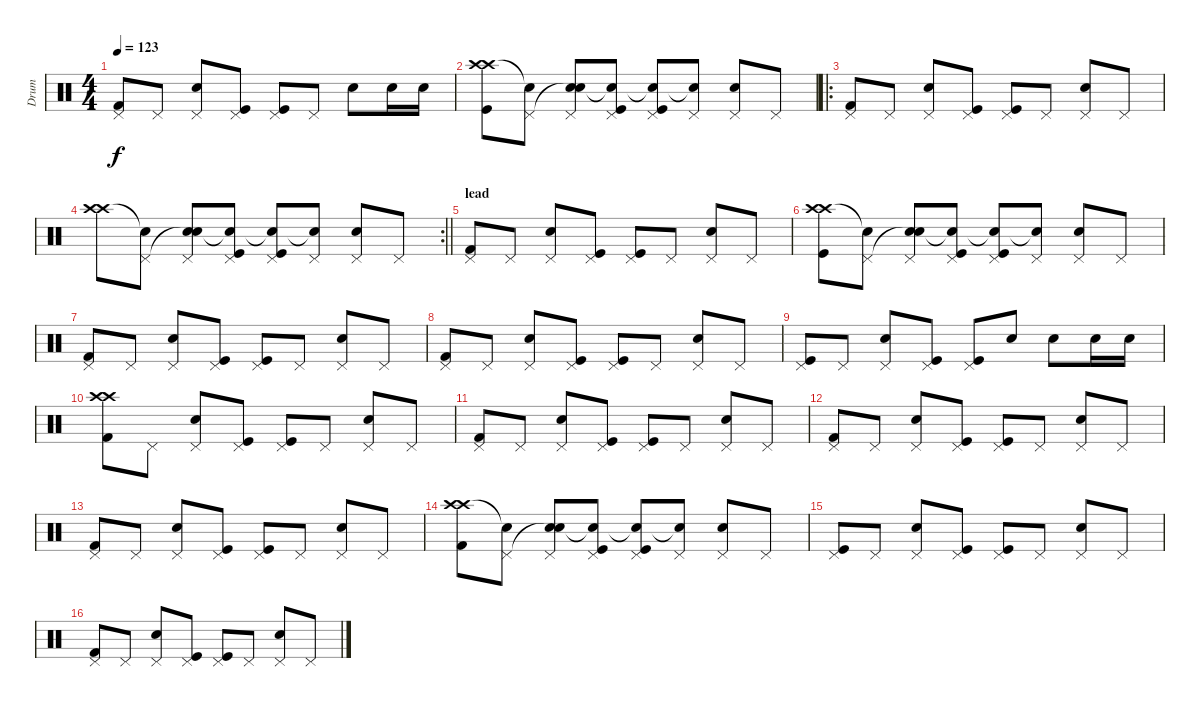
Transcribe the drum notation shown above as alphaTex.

\track ("Drum" "Drum") {instrument percussion}
\staff {score}
\articulation defaults
\ts (4 4)
\tempo 123
\clef neutral
\ks c
("Kick (hit) 2" "Pedal Hi-Hat (hit)").8{dy f} "Pedal Hi-Hat (hit)".8 ("Snare (hit) 2" "Pedal Hi-Hat (hit)").8 ("Kick (hit)" "Pedal Hi-Hat (hit)").8 ("Kick (hit)" "Pedal Hi-Hat (hit)").8 "Pedal Hi-Hat (hit)".8 "Snare (hit) 2".8 "Snare (hit) 2".16 "Snare (hit) 2".16 |
("Crash high (hit)" "Crash high (hit)" "Kick (hit)").8 ("Snare (hit)"{t} "Pedal Hi-Hat (hit)").8 ("Snare (hit) 2" "Snare (hit)"{t} "Pedal Hi-Hat (hit)").8 ("Snare (hit)"{t} "Kick (hit)" "Pedal Hi-Hat (hit)").8 ("Snare (hit)"{t} "Kick (hit)" "Pedal Hi-Hat (hit)").8 ("Snare (hit)"{t} "Pedal Hi-Hat (hit)").8 ("Snare (hit) 2" "Pedal Hi-Hat (hit)").8 "Pedal Hi-Hat (hit)".8 |
\ro
("Kick (hit) 2" "Pedal Hi-Hat (hit)").8 "Pedal Hi-Hat (hit)".8 ("Snare (hit) 2" "Pedal Hi-Hat (hit)").8 ("Kick (hit)" "Pedal Hi-Hat (hit)").8 ("Kick (hit)" "Pedal Hi-Hat (hit)").8 "Pedal Hi-Hat (hit)".8 ("Snare (hit) 2" "Pedal Hi-Hat (hit)").8 "Pedal Hi-Hat (hit)".8 |
\rc 2
\barLineRight lightlight
("Crash high (hit)" "Crash high (hit)").8 ("Snare (hit)"{t} "Pedal Hi-Hat (hit)").8 ("Snare (hit) 2" "Snare (hit)"{t} "Pedal Hi-Hat (hit)").8 ("Snare (hit)"{t} "Kick (hit)" "Pedal Hi-Hat (hit)").8 ("Snare (hit)"{t} "Kick (hit)" "Pedal Hi-Hat (hit)").8 ("Snare (hit)"{t} "Pedal Hi-Hat (hit)").8 ("Snare (hit) 2" "Pedal Hi-Hat (hit)").8 "Pedal Hi-Hat (hit)".8 |
\section ("" "lead")
("Kick (hit) 2" "Pedal Hi-Hat (hit)").8 "Pedal Hi-Hat (hit)".8 ("Snare (hit) 2" "Pedal Hi-Hat (hit)").8 ("Kick (hit)" "Pedal Hi-Hat (hit)").8 ("Kick (hit)" "Pedal Hi-Hat (hit)").8 "Pedal Hi-Hat (hit)".8 ("Snare (hit) 2" "Pedal Hi-Hat (hit)").8 "Pedal Hi-Hat (hit)".8 |
("Crash high (hit)" "Crash high (hit)" "Kick (hit)").8 ("Snare (hit)"{t} "Pedal Hi-Hat (hit)").8 ("Snare (hit) 2" "Snare (hit)"{t} "Pedal Hi-Hat (hit)").8 ("Snare (hit)"{t} "Kick (hit)" "Pedal Hi-Hat (hit)").8 ("Snare (hit)"{t} "Kick (hit)" "Pedal Hi-Hat (hit)").8 ("Snare (hit)"{t} "Pedal Hi-Hat (hit)").8 ("Snare (hit) 2" "Pedal Hi-Hat (hit)").8 "Pedal Hi-Hat (hit)".8 |
("Kick (hit) 2" "Pedal Hi-Hat (hit)").8 "Pedal Hi-Hat (hit)".8 ("Snare (hit) 2" "Pedal Hi-Hat (hit)").8 ("Kick (hit)" "Pedal Hi-Hat (hit)").8 ("Kick (hit)" "Pedal Hi-Hat (hit)").8 "Pedal Hi-Hat (hit)".8 ("Snare (hit) 2" "Pedal Hi-Hat (hit)").8 "Pedal Hi-Hat (hit)".8 |
("Kick (hit) 2" "Pedal Hi-Hat (hit)").8 "Pedal Hi-Hat (hit)".8 ("Snare (hit) 2" "Pedal Hi-Hat (hit)").8 ("Kick (hit)" "Pedal Hi-Hat (hit)").8 ("Kick (hit)" "Pedal Hi-Hat (hit)").8 "Pedal Hi-Hat (hit)".8 ("Snare (hit) 2" "Pedal Hi-Hat (hit)").8 "Pedal Hi-Hat (hit)".8 |
("Kick (hit)" "Pedal Hi-Hat (hit)").8 "Pedal Hi-Hat (hit)".8 ("Snare (hit) 2" "Pedal Hi-Hat (hit)").8 ("Kick (hit)" "Pedal Hi-Hat (hit)").8 ("Kick (hit)" "Pedal Hi-Hat (hit)").8 "Snare (hit) 2".8 "Snare (hit) 2".8 "Snare (hit) 2".16 "Snare (hit) 2".16 |
("Crash high (hit)" "Crash high (hit)" "Kick (hit) 2").8 "Pedal Hi-Hat (hit)".8 ("Snare (hit) 2" "Pedal Hi-Hat (hit)").8 ("Kick (hit)" "Pedal Hi-Hat (hit)").8 ("Kick (hit)" "Pedal Hi-Hat (hit)").8 "Pedal Hi-Hat (hit)".8 ("Snare (hit) 2" "Pedal Hi-Hat (hit)").8 "Pedal Hi-Hat (hit)".8 |
("Kick (hit) 2" "Pedal Hi-Hat (hit)").8 "Pedal Hi-Hat (hit)".8 ("Snare (hit) 2" "Pedal Hi-Hat (hit)").8 ("Kick (hit)" "Pedal Hi-Hat (hit)").8 ("Kick (hit)" "Pedal Hi-Hat (hit)").8 "Pedal Hi-Hat (hit)".8 ("Snare (hit) 2" "Pedal Hi-Hat (hit)").8 "Pedal Hi-Hat (hit)".8 |
("Kick (hit) 2" "Pedal Hi-Hat (hit)").8 "Pedal Hi-Hat (hit)".8 ("Snare (hit) 2" "Pedal Hi-Hat (hit)").8 ("Kick (hit)" "Pedal Hi-Hat (hit)").8 ("Kick (hit)" "Pedal Hi-Hat (hit)").8 "Pedal Hi-Hat (hit)".8 ("Snare (hit) 2" "Pedal Hi-Hat (hit)").8 "Pedal Hi-Hat (hit)".8 |
("Kick (hit) 2" "Pedal Hi-Hat (hit)").8 "Pedal Hi-Hat (hit)".8 ("Snare (hit) 2" "Pedal Hi-Hat (hit)").8 ("Kick (hit)" "Pedal Hi-Hat (hit)").8 ("Kick (hit)" "Pedal Hi-Hat (hit)").8 "Pedal Hi-Hat (hit)".8 ("Snare (hit) 2" "Pedal Hi-Hat (hit)").8 "Pedal Hi-Hat (hit)".8 |
("Crash high (hit)" "Crash high (hit)" "Kick (hit) 2").8 ("Snare (hit)"{t} "Pedal Hi-Hat (hit)").8 ("Snare (hit) 2" "Snare (hit)"{t} "Pedal Hi-Hat (hit)").8 ("Snare (hit)"{t} "Kick (hit)" "Pedal Hi-Hat (hit)").8 ("Snare (hit)"{t} "Kick (hit)" "Pedal Hi-Hat (hit)").8 ("Snare (hit)"{t} "Pedal Hi-Hat (hit)").8 ("Snare (hit) 2" "Pedal Hi-Hat (hit)").8 "Pedal Hi-Hat (hit)".8 |
("Kick (hit)" "Pedal Hi-Hat (hit)").8 "Pedal Hi-Hat (hit)".8 ("Snare (hit) 2" "Pedal Hi-Hat (hit)").8 ("Kick (hit)" "Pedal Hi-Hat (hit)").8 ("Kick (hit)" "Pedal Hi-Hat (hit)").8 "Pedal Hi-Hat (hit)".8 ("Snare (hit) 2" "Pedal Hi-Hat (hit)").8 "Pedal Hi-Hat (hit)".8 |
("Kick (hit) 2" "Pedal Hi-Hat (hit)").8 "Pedal Hi-Hat (hit)".8 ("Snare (hit) 2" "Pedal Hi-Hat (hit)").8 ("Kick (hit)" "Pedal Hi-Hat (hit)").8 ("Kick (hit)" "Pedal Hi-Hat (hit)").8 "Pedal Hi-Hat (hit)".8 ("Snare (hit) 2" "Pedal Hi-Hat (hit)").8 "Pedal Hi-Hat (hit)".8
